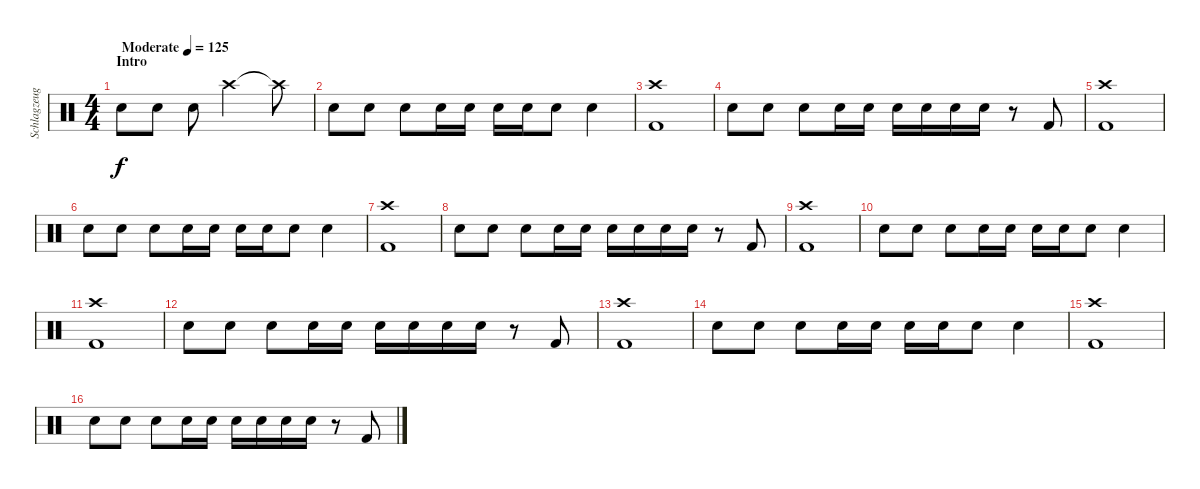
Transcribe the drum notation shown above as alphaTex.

\track ("Schlagzeug" "Schlagzeug") {instrument percussion}
\staff {score}
\articulation defaults
\ts (4 4)
\section ("" "Intro")
\tempo (125 "Moderate")
\clef neutral
\ks c "Electric Snare (hit)".8{dy f} "Electric Snare (hit)".8 "Electric Snare (hit)".8 "Crash high (hit)".2 "Crash high (hit)"{t}.8
|
"Electric Snare (hit)".8 "Electric Snare (hit)".8 "Electric Snare (hit)".8 "Electric Snare (hit)".16 "Electric Snare (hit)".16 "Electric Snare (hit)".16 "Electric Snare (hit)".16 "Electric Snare (hit)".8 "Electric Snare (hit)".4 |
("Crash high (hit)" "Kick (hit) 2").1 |
"Electric Snare (hit)".8 "Electric Snare (hit)".8 "Electric Snare (hit)".8 "Electric Snare (hit)".16 "Electric Snare (hit)".16 "Electric Snare (hit)".16 "Electric Snare (hit)".16 "Electric Snare (hit)".16 "Electric Snare (hit)".16 r.8 "Kick (hit) 2".8 |
("Crash high (hit)" "Kick (hit) 2").1 |
"Electric Snare (hit)".8 "Electric Snare (hit)".8 "Electric Snare (hit)".8 "Electric Snare (hit)".16 "Electric Snare (hit)".16 "Electric Snare (hit)".16 "Electric Snare (hit)".16 "Electric Snare (hit)".8 "Electric Snare (hit)".4 |
("Crash high (hit)" "Kick (hit) 2").1 |
"Electric Snare (hit)".8 "Electric Snare (hit)".8 "Electric Snare (hit)".8 "Electric Snare (hit)".16 "Electric Snare (hit)".16 "Electric Snare (hit)".16 "Electric Snare (hit)".16 "Electric Snare (hit)".16 "Electric Snare (hit)".16 r.8 "Kick (hit) 2".8 |
("Crash high (hit)" "Kick (hit) 2").1 |
"Electric Snare (hit)".8 "Electric Snare (hit)".8 "Electric Snare (hit)".8 "Electric Snare (hit)".16 "Electric Snare (hit)".16 "Electric Snare (hit)".16 "Electric Snare (hit)".16 "Electric Snare (hit)".8 "Electric Snare (hit)".4 |
("Crash high (hit)" "Kick (hit) 2").1 |
"Electric Snare (hit)".8 "Electric Snare (hit)".8 "Electric Snare (hit)".8 "Electric Snare (hit)".16 "Electric Snare (hit)".16 "Electric Snare (hit)".16 "Electric Snare (hit)".16 "Electric Snare (hit)".16 "Electric Snare (hit)".16 r.8 "Kick (hit) 2".8 |
("Crash high (hit)" "Kick (hit) 2").1 |
"Electric Snare (hit)".8 "Electric Snare (hit)".8 "Electric Snare (hit)".8 "Electric Snare (hit)".16 "Electric Snare (hit)".16 "Electric Snare (hit)".16 "Electric Snare (hit)".16 "Electric Snare (hit)".8 "Electric Snare (hit)".4 |
("Crash high (hit)" "Kick (hit) 2").1 |
"Electric Snare (hit)".8 "Electric Snare (hit)".8 "Electric Snare (hit)".8 "Electric Snare (hit)".16 "Electric Snare (hit)".16 "Electric Snare (hit)".16 "Electric Snare (hit)".16 "Electric Snare (hit)".16 "Electric Snare (hit)".16 r.8 "Kick (hit) 2".8
